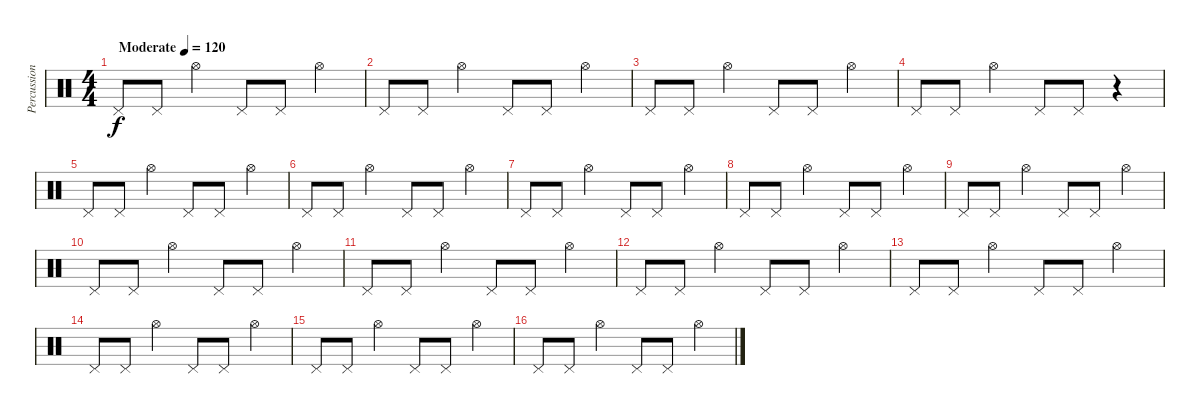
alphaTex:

\track ("Percussion" "Percussion") {instrument percussion}
\staff {score}
\articulation defaults
\ts (4 4)
\tempo (120 "Moderate")
\clef neutral
\ks c "Pedal Hi-Hat (hit)".8{dy f} "Pedal Hi-Hat (hit)".8 "Hi-Hat (open)".4 "Pedal Hi-Hat (hit)".8 "Pedal Hi-Hat (hit)".8 "Hi-Hat (open)".4
|
"Pedal Hi-Hat (hit)".8 "Pedal Hi-Hat (hit)".8 "Hi-Hat (open)".4 "Pedal Hi-Hat (hit)".8 "Pedal Hi-Hat (hit)".8 "Hi-Hat (open)".4 |
"Pedal Hi-Hat (hit)".8 "Pedal Hi-Hat (hit)".8 "Hi-Hat (open)".4 "Pedal Hi-Hat (hit)".8 "Pedal Hi-Hat (hit)".8 "Hi-Hat (open)".4 |
"Pedal Hi-Hat (hit)".8 "Pedal Hi-Hat (hit)".8 "Hi-Hat (open)".4 "Pedal Hi-Hat (hit)".8 "Pedal Hi-Hat (hit)".8 r.4 |
"Pedal Hi-Hat (hit)".8 "Pedal Hi-Hat (hit)".8 "Hi-Hat (open)".4 "Pedal Hi-Hat (hit)".8 "Pedal Hi-Hat (hit)".8 "Hi-Hat (open)".4 |
"Pedal Hi-Hat (hit)".8 "Pedal Hi-Hat (hit)".8 "Hi-Hat (open)".4 "Pedal Hi-Hat (hit)".8 "Pedal Hi-Hat (hit)".8 "Hi-Hat (open)".4 |
"Pedal Hi-Hat (hit)".8 "Pedal Hi-Hat (hit)".8 "Hi-Hat (open)".4 "Pedal Hi-Hat (hit)".8 "Pedal Hi-Hat (hit)".8 "Hi-Hat (open)".4 |
"Pedal Hi-Hat (hit)".8 "Pedal Hi-Hat (hit)".8 "Hi-Hat (open)".4 "Pedal Hi-Hat (hit)".8 "Pedal Hi-Hat (hit)".8 "Hi-Hat (open)".4 |
"Pedal Hi-Hat (hit)".8 "Pedal Hi-Hat (hit)".8 "Hi-Hat (open)".4 "Pedal Hi-Hat (hit)".8 "Pedal Hi-Hat (hit)".8 "Hi-Hat (open)".4 |
"Pedal Hi-Hat (hit)".8 "Pedal Hi-Hat (hit)".8 "Hi-Hat (open)".4 "Pedal Hi-Hat (hit)".8 "Pedal Hi-Hat (hit)".8 "Hi-Hat (open)".4 |
"Pedal Hi-Hat (hit)".8 "Pedal Hi-Hat (hit)".8 "Hi-Hat (open)".4 "Pedal Hi-Hat (hit)".8 "Pedal Hi-Hat (hit)".8 "Hi-Hat (open)".4 |
"Pedal Hi-Hat (hit)".8 "Pedal Hi-Hat (hit)".8 "Hi-Hat (open)".4 "Pedal Hi-Hat (hit)".8 "Pedal Hi-Hat (hit)".8 "Hi-Hat (open)".4 |
"Pedal Hi-Hat (hit)".8 "Pedal Hi-Hat (hit)".8 "Hi-Hat (open)".4 "Pedal Hi-Hat (hit)".8 "Pedal Hi-Hat (hit)".8 "Hi-Hat (open)".4 |
"Pedal Hi-Hat (hit)".8 "Pedal Hi-Hat (hit)".8 "Hi-Hat (open)".4 "Pedal Hi-Hat (hit)".8 "Pedal Hi-Hat (hit)".8 "Hi-Hat (open)".4 |
"Pedal Hi-Hat (hit)".8 "Pedal Hi-Hat (hit)".8 "Hi-Hat (open)".4 "Pedal Hi-Hat (hit)".8 "Pedal Hi-Hat (hit)".8 "Hi-Hat (open)".4 |
"Pedal Hi-Hat (hit)".8 "Pedal Hi-Hat (hit)".8 "Hi-Hat (open)".4 "Pedal Hi-Hat (hit)".8 "Pedal Hi-Hat (hit)".8 "Hi-Hat (open)".4
